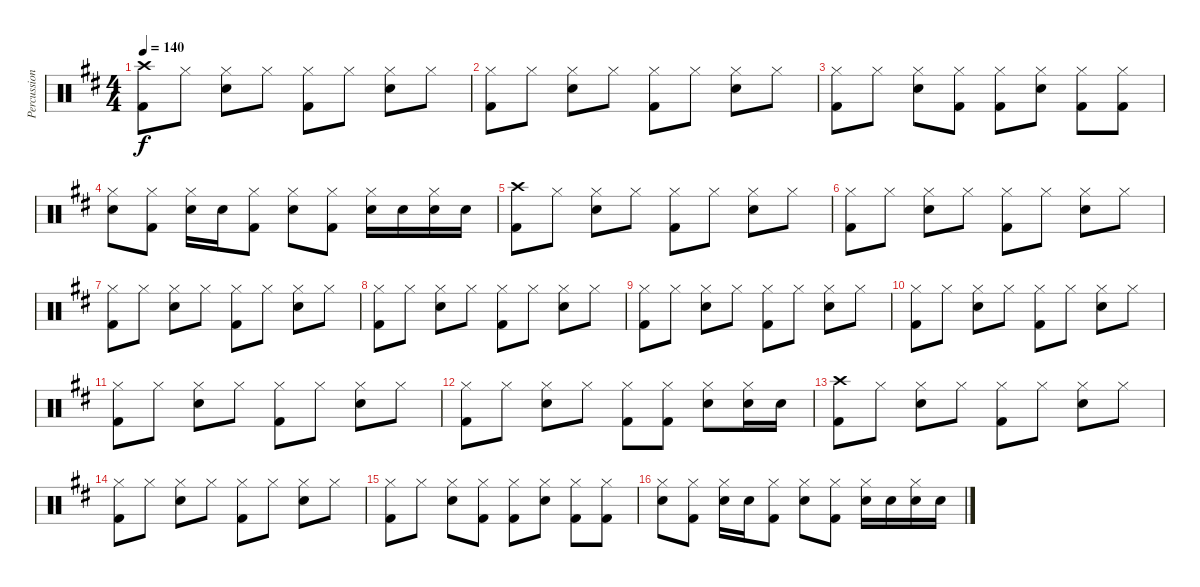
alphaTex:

\track ("Percussion" "Percussion") {instrument percussion}
\staff {score}
\articulation defaults
\ts (4 4)
\tempo 140
\clef neutral
\ks bminor
("Crash high (hit)" "Kick (hit) 2").8{dy f} "Hi-Hat (closed)".8 ("Hi-Hat (closed)" "Snare (hit) 2").8 "Hi-Hat (closed)".8 ("Hi-Hat (closed)" "Kick (hit) 2").8 "Hi-Hat (closed)".8 ("Hi-Hat (closed)" "Snare (hit) 2").8 "Hi-Hat (closed)".8 |
("Hi-Hat (closed)" "Kick (hit) 2").8 "Hi-Hat (closed)".8 ("Hi-Hat (closed)" "Snare (hit) 2").8 "Hi-Hat (closed)".8 ("Hi-Hat (closed)" "Kick (hit) 2").8 "Hi-Hat (closed)".8 ("Hi-Hat (closed)" "Snare (hit) 2").8 "Hi-Hat (closed)".8 |
("Hi-Hat (closed)" "Kick (hit) 2").8 "Hi-Hat (closed)".8 ("Hi-Hat (closed)" "Snare (hit) 2").8 ("Hi-Hat (closed)" "Kick (hit) 2").8 ("Hi-Hat (closed)" "Kick (hit) 2").8 ("Hi-Hat (closed)" "Snare (hit) 2").8 ("Hi-Hat (closed)" "Kick (hit) 2").8 ("Hi-Hat (closed)" "Kick (hit) 2").8 |
("Hi-Hat (closed)" "Snare (hit) 2").8 ("Hi-Hat (closed)" "Kick (hit) 2").8 ("Hi-Hat (closed)" "Snare (hit) 2").16 "Snare (hit) 2".16 ("Hi-Hat (closed)" "Kick (hit) 2").8 ("Hi-Hat (closed)" "Snare (hit) 2").8 ("Hi-Hat (closed)" "Kick (hit) 2").8 ("Hi-Hat (closed)" "Snare (hit) 2").16 "Snare (hit) 2".16 ("Hi-Hat (closed)" "Snare (hit) 2").16 "Snare (hit) 2".16 |
("Crash high (hit)" "Kick (hit) 2").8 "Hi-Hat (closed)".8 ("Hi-Hat (closed)" "Snare (hit) 2").8 "Hi-Hat (closed)".8 ("Hi-Hat (closed)" "Kick (hit) 2").8 "Hi-Hat (closed)".8 ("Hi-Hat (closed)" "Snare (hit) 2").8 "Hi-Hat (closed)".8 |
("Hi-Hat (closed)" "Kick (hit) 2").8 "Hi-Hat (closed)".8 ("Hi-Hat (closed)" "Snare (hit) 2").8 "Hi-Hat (closed)".8 ("Hi-Hat (closed)" "Kick (hit) 2").8 "Hi-Hat (closed)".8 ("Hi-Hat (closed)" "Snare (hit) 2").8 "Hi-Hat (closed)".8 |
("Hi-Hat (closed)" "Kick (hit) 2").8 "Hi-Hat (closed)".8 ("Hi-Hat (closed)" "Snare (hit) 2").8 "Hi-Hat (closed)".8 ("Hi-Hat (closed)" "Kick (hit) 2").8 "Hi-Hat (closed)".8 ("Hi-Hat (closed)" "Snare (hit) 2").8 "Hi-Hat (closed)".8 |
("Hi-Hat (closed)" "Kick (hit) 2").8 "Hi-Hat (closed)".8 ("Hi-Hat (closed)" "Snare (hit) 2").8 "Hi-Hat (closed)".8 ("Hi-Hat (closed)" "Kick (hit) 2").8 "Hi-Hat (closed)".8 ("Hi-Hat (closed)" "Snare (hit) 2").8 "Hi-Hat (closed)".8 |
("Hi-Hat (closed)" "Kick (hit) 2").8 "Hi-Hat (closed)".8 ("Hi-Hat (closed)" "Snare (hit) 2").8 "Hi-Hat (closed)".8 ("Hi-Hat (closed)" "Kick (hit) 2").8 "Hi-Hat (closed)".8 ("Hi-Hat (closed)" "Snare (hit) 2").8 "Hi-Hat (closed)".8 |
("Hi-Hat (closed)" "Kick (hit) 2").8 "Hi-Hat (closed)".8 ("Hi-Hat (closed)" "Snare (hit) 2").8 "Hi-Hat (closed)".8 ("Hi-Hat (closed)" "Kick (hit) 2").8 "Hi-Hat (closed)".8 ("Hi-Hat (closed)" "Snare (hit) 2").8 "Hi-Hat (closed)".8 |
("Hi-Hat (closed)" "Kick (hit) 2").8 "Hi-Hat (closed)".8 ("Hi-Hat (closed)" "Snare (hit) 2").8 "Hi-Hat (closed)".8 ("Hi-Hat (closed)" "Kick (hit) 2").8 "Hi-Hat (closed)".8 ("Hi-Hat (closed)" "Snare (hit) 2").8 "Hi-Hat (closed)".8 |
("Hi-Hat (closed)" "Kick (hit) 2").8 "Hi-Hat (closed)".8 ("Hi-Hat (closed)" "Snare (hit) 2").8 "Hi-Hat (closed)".8 ("Hi-Hat (closed)" "Kick (hit) 2").8 ("Hi-Hat (closed)" "Kick (hit) 2").8 ("Hi-Hat (closed)" "Snare (hit) 2").8 ("Hi-Hat (closed)" "Snare (hit) 2").16 "Snare (hit) 2".16 |
("Crash high (hit)" "Kick (hit) 2").8 "Hi-Hat (closed)".8 ("Hi-Hat (closed)" "Snare (hit) 2").8 "Hi-Hat (closed)".8 ("Hi-Hat (closed)" "Kick (hit) 2").8 "Hi-Hat (closed)".8 ("Hi-Hat (closed)" "Snare (hit) 2").8 "Hi-Hat (closed)".8 |
("Hi-Hat (closed)" "Kick (hit) 2").8 "Hi-Hat (closed)".8 ("Hi-Hat (closed)" "Snare (hit) 2").8 "Hi-Hat (closed)".8 ("Hi-Hat (closed)" "Kick (hit) 2").8 "Hi-Hat (closed)".8 ("Hi-Hat (closed)" "Snare (hit) 2").8 "Hi-Hat (closed)".8 |
("Hi-Hat (closed)" "Kick (hit) 2").8 "Hi-Hat (closed)".8 ("Hi-Hat (closed)" "Snare (hit) 2").8 ("Hi-Hat (closed)" "Kick (hit) 2").8 ("Hi-Hat (closed)" "Kick (hit) 2").8 ("Hi-Hat (closed)" "Snare (hit) 2").8 ("Hi-Hat (closed)" "Kick (hit) 2").8 ("Hi-Hat (closed)" "Kick (hit) 2").8 |
("Hi-Hat (closed)" "Snare (hit) 2").8 ("Hi-Hat (closed)" "Kick (hit) 2").8 ("Hi-Hat (closed)" "Snare (hit) 2").16 "Snare (hit) 2".16 ("Hi-Hat (closed)" "Kick (hit) 2").8 ("Hi-Hat (closed)" "Snare (hit) 2").8 ("Hi-Hat (closed)" "Kick (hit) 2").8 ("Hi-Hat (closed)" "Snare (hit) 2").16 "Snare (hit) 2".16 ("Hi-Hat (closed)" "Snare (hit) 2").16 "Snare (hit) 2".16
